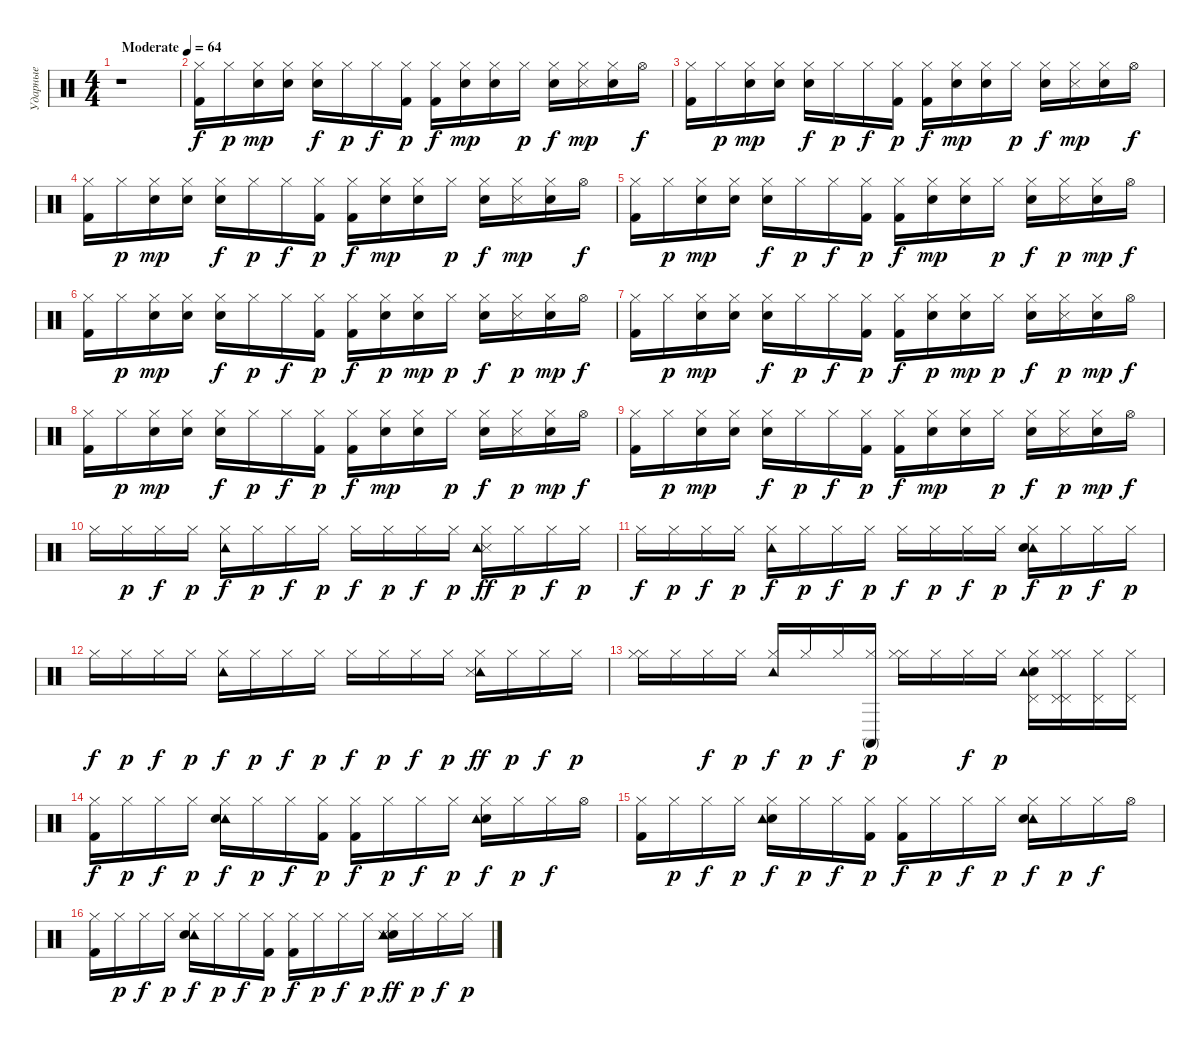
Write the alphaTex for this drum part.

\track ("Ударные" "Ударные") {instrument percussion}
\staff {score}
\articulation defaults
\ts (4 4)
\tempo (64 "Moderate")
\clef neutral
\ks c
r.1{dy f} |
("Hi-Hat (closed)" "Kick (hit) 2").16 "Hi-Hat (closed)".16{dy p} ("Hi-Hat (closed)" "Metronome (bell)").16{dy mp} ("Hi-Hat (closed)" "Metronome (bell)").16 ("Hi-Hat (closed)" "Electric Snare (hit)").16{dy f} "Hi-Hat (closed)".16{dy p} "Hi-Hat (closed)".16{dy f} ("Hi-Hat (closed)" "Kick (hit) 2").16{dy p} ("Hi-Hat (closed)" "Kick (hit) 2").16{dy f} ("Hi-Hat (closed)" "Metronome (bell)").16{dy mp} ("Metronome (bell)" "Hi-Hat (closed)").16 "Hi-Hat (closed)".16{dy p} ("Electric Snare (hit)" "Hi-Hat (closed)").16{dy f} ("Hi-Hat (closed)" "Snare (side stick) 3").16{dy mp} ("Hi-Hat (closed)" "Hand Clap (hit)").16 "Hi-Hat (open)".16{dy f} |
("Hi-Hat (closed)" "Kick (hit) 2").16 "Hi-Hat (closed)".16{dy p} ("Hi-Hat (closed)" "Metronome (bell)").16{dy mp} ("Hi-Hat (closed)" "Metronome (bell)").16 ("Hi-Hat (closed)" "Electric Snare (hit)").16{dy f} "Hi-Hat (closed)".16{dy p} "Hi-Hat (closed)".16{dy f} ("Hi-Hat (closed)" "Kick (hit) 2").16{dy p} ("Hi-Hat (closed)" "Kick (hit) 2").16{dy f} ("Hi-Hat (closed)" "Metronome (bell)").16{dy mp} ("Metronome (bell)" "Hi-Hat (closed)").16 "Hi-Hat (closed)".16{dy p} ("Electric Snare (hit)" "Hi-Hat (closed)").16{dy f} ("Hi-Hat (closed)" "Snare (side stick) 3").16{dy mp} ("Hi-Hat (closed)" "Hand Clap (hit)").16 "Hi-Hat (open)".16{dy f} |
("Kick (hit) 2" "Hi-Hat (closed)").16 "Hi-Hat (closed)".16{dy p} ("Hi-Hat (closed)" "Metronome (bell)").16{dy mp} ("Hi-Hat (closed)" "Metronome (bell)").16 ("Hi-Hat (closed)" "Electric Snare (hit)").16{dy f} "Hi-Hat (closed)".16{dy p} "Hi-Hat (closed)".16{dy f} ("Hi-Hat (closed)" "Kick (hit) 2").16{dy p} ("Hi-Hat (closed)" "Kick (hit) 2").16{dy f} ("Hi-Hat (closed)" "Metronome (bell)").16{dy mp} ("Metronome (bell)" "Hi-Hat (closed)").16 "Hi-Hat (closed)".16{dy p} ("Electric Snare (hit)" "Hi-Hat (closed)").16{dy f} ("Hi-Hat (closed)" "Snare (side stick) 3").16{dy mp} ("Hi-Hat (closed)" "Hand Clap (hit)").16 "Hi-Hat (open)".16{dy f} |
("Kick (hit) 2" "Hi-Hat (closed)").16 "Hi-Hat (closed)".16{dy p} ("Hi-Hat (closed)" "Metronome (bell)").16{dy mp} ("Hi-Hat (closed)" "Metronome (bell)").16 ("Hi-Hat (closed)" "Electric Snare (hit)").16{dy f} "Hi-Hat (closed)".16{dy p} "Hi-Hat (closed)".16{dy f} ("Kick (hit) 2" "Hi-Hat (closed)").16{dy p} ("Hi-Hat (closed)" "Kick (hit) 2").16{dy f} ("Hi-Hat (closed)" "Metronome (bell)").16{dy mp} ("Metronome (bell)" "Hi-Hat (closed)").16 "Hi-Hat (closed)".16{dy p} ("Electric Snare (hit)" "Hi-Hat (closed)").16{dy f} ("Snare (side stick) 3" "Hi-Hat (closed)").16{dy p} ("Hi-Hat (closed)" "Hand Clap (hit)").16{dy mp} "Hi-Hat (open)".16{dy f} |
("Hi-Hat (closed)" "Kick (hit) 2").16 "Hi-Hat (closed)".16{dy p} ("Hi-Hat (closed)" "Metronome (bell)").16{dy mp} ("Hi-Hat (closed)" "Metronome (bell)").16 ("Hi-Hat (closed)" "Electric Snare (hit)").16{dy f} "Hi-Hat (closed)".16{dy p} "Hi-Hat (closed)".16{dy f} ("Hi-Hat (closed)" "Kick (hit) 2").16{dy p} ("Hi-Hat (closed)" "Kick (hit) 2").16{dy f} ("Metronome (bell)" "Hi-Hat (closed)").16{dy p} ("Metronome (bell)" "Hi-Hat (closed)").16{dy mp} "Hi-Hat (closed)".16{dy p} ("Electric Snare (hit)" "Hi-Hat (closed)").16{dy f} ("Snare (side stick) 3" "Hi-Hat (closed)").16{dy p} ("Hi-Hat (closed)" "Hand Clap (hit)").16{dy mp} "Hi-Hat (open)".16{dy f} |
("Hi-Hat (closed)" "Kick (hit) 2").16 "Hi-Hat (closed)".16{dy p} ("Hi-Hat (closed)" "Metronome (bell)").16{dy mp} ("Hi-Hat (closed)" "Metronome (bell)").16 ("Electric Snare (hit)" "Hi-Hat (closed)").16{dy f} "Hi-Hat (closed)".16{dy p} "Hi-Hat (closed)".16{dy f} ("Kick (hit) 2" "Hi-Hat (closed)").16{dy p} ("Kick (hit) 2" "Hi-Hat (closed)").16{dy f} ("Metronome (bell)" "Hi-Hat (closed)").16{dy p} ("Hi-Hat (closed)" "Metronome (bell)").16{dy mp} "Hi-Hat (closed)".16{dy p} ("Electric Snare (hit)" "Hi-Hat (closed)").16{dy f} ("Snare (side stick) 3" "Hi-Hat (closed)").16{dy p} ("Hand Clap (hit)" "Hi-Hat (closed)").16{dy mp} "Hi-Hat (open)".16{dy f} |
("Kick (hit) 2" "Hi-Hat (closed)").16 "Hi-Hat (closed)".16{dy p} ("Metronome (bell)" "Hi-Hat (closed)").16{dy mp} ("Hi-Hat (closed)" "Metronome (bell)").16 ("Hi-Hat (closed)" "Electric Snare (hit)").16{dy f} "Hi-Hat (closed)".16{dy p} "Hi-Hat (closed)".16{dy f} ("Hi-Hat (closed)" "Kick (hit) 2").16{dy p} ("Hi-Hat (closed)" "Kick (hit) 2").16{dy f} ("Hi-Hat (closed)" "Metronome (bell)").16{dy mp} ("Hi-Hat (closed)" "Metronome (bell)").16 "Hi-Hat (closed)".16{dy p} ("Electric Snare (hit)" "Hi-Hat (closed)").16{dy f} ("Snare (side stick) 3" "Hi-Hat (closed)").16{dy p} ("Hi-Hat (closed)" "Hand Clap (hit)").16{dy mp} "Hi-Hat (open)".16{dy f} |
("Kick (hit) 2" "Hi-Hat (closed)").16 "Hi-Hat (closed)".16{dy p} ("Hi-Hat (closed)" "Metronome (bell)").16{dy mp} ("Hi-Hat (closed)" "Metronome (bell)").16 ("Hi-Hat (closed)" "Electric Snare (hit)").16{dy f} "Hi-Hat (closed)".16{dy p} "Hi-Hat (closed)".16{dy f} ("Kick (hit) 2" "Hi-Hat (closed)").16{dy p} ("Hi-Hat (closed)" "Kick (hit) 2").16{dy f} ("Hi-Hat (closed)" "Metronome (bell)").16{dy mp} ("Hi-Hat (closed)" "Metronome (bell)").16 "Hi-Hat (closed)".16{dy p} ("Electric Snare (hit)" "Hi-Hat (closed)").16{dy f} ("Snare (side stick) 3" "Hi-Hat (closed)").16{dy p} ("Hi-Hat (closed)" "Hand Clap (hit)").16{dy mp} "Hi-Hat (open)".16{dy f} |
"Hi-Hat (closed)".16 "Hi-Hat (closed)".16{dy p} "Hi-Hat (closed)".16{dy f} "Hi-Hat (closed)".16{dy p} ("Hi-Hat (closed)" "Tambourine (hit)").16{dy f} "Hi-Hat (closed)".16{dy p} "Hi-Hat (closed)".16{dy f} "Hi-Hat (closed)".16{dy p} "Hi-Hat (closed)".16{dy f} "Hi-Hat (closed)".16{dy p} "Hi-Hat (closed)".16{dy f} "Hi-Hat (closed)".16{dy p} ("Hi-Hat (closed)" "Snare (side stick) 3" "Tambourine (hit)").16{dy ff} "Hi-Hat (closed)".16{dy p} "Hi-Hat (closed)".16{dy f} "Hi-Hat (closed)".16{dy p} |
"Hi-Hat (closed)".16{dy f} "Hi-Hat (closed)".16{dy p} "Hi-Hat (closed)".16{dy f} "Hi-Hat (closed)".16{dy p} ("Tambourine (hit)" "Hi-Hat (closed)").16{dy f} "Hi-Hat (closed)".16{dy p} "Hi-Hat (closed)".16{dy f} "Hi-Hat (closed)".16{dy p} "Hi-Hat (closed)".16{dy f} "Hi-Hat (closed)".16{dy p} "Hi-Hat (closed)".16{dy f} "Hi-Hat (closed)".16{dy p} ("Hi-Hat (closed)" "Tambourine (hit)" "Hand Clap (hit)").16{dy f} "Hi-Hat (closed)".16{dy p} "Hi-Hat (closed)".16{dy f} "Hi-Hat (closed)".16{dy p} |
"Hi-Hat (closed)".16{dy f} "Hi-Hat (closed)".16{dy p} "Hi-Hat (closed)".16{dy f} "Hi-Hat (closed)".16{dy p} ("Hi-Hat (closed)" "Tambourine (hit)").16{dy f} "Hi-Hat (closed)".16{dy p} "Hi-Hat (closed)".16{dy f} "Hi-Hat (closed)".16{dy p} "Hi-Hat (closed)".16{dy f} "Hi-Hat (closed)".16{dy p} "Hi-Hat (closed)".16{dy f} "Hi-Hat (closed)".16{dy p} ("Hi-Hat (closed)" "Tambourine (hit)" "Snare (side stick) 3").16{dy ff} "Hi-Hat (closed)".16{dy p} "Hi-Hat (closed)".16{dy f} "Hi-Hat (closed)".16{dy p} |
("Hi-Hat (closed)" "Hi-Hat (closed)").16 "Hi-Hat (closed)".16 "Hi-Hat (closed)".16{dy f} "Hi-Hat (closed)".16{dy p} ("Tambourine (hit)" "Hi-Hat (closed)").16{dy f} "Hi-Hat (closed)".16{dy p} "Hi-Hat (closed)".16{dy f} ("Hi-Hat (closed)" "Conga high (mute)").16{dy p} ("Hi-Hat (closed)" "Hi-Hat (closed)").16 "Hi-Hat (closed)".16 "Hi-Hat (closed)".16{dy f} "Hi-Hat (closed)".16{dy p} ("Hand Clap (hit)" "Hi-Hat (closed)" "Pedal Hi-Hat (hit)" "Tambourine (hit)").16 ("Hi-Hat (closed)" "Pedal Hi-Hat (hit)" "Pedal Hi-Hat (hit)" "Hi-Hat (closed)").16 ("Pedal Hi-Hat (hit)" "Hi-Hat (closed)").16 ("Pedal Hi-Hat (hit)" "Hi-Hat (closed)").16 |
("Kick (hit) 2" "Hi-Hat (closed)").16{dy f} "Hi-Hat (closed)".16{dy p} "Hi-Hat (closed)".16{dy f} "Hi-Hat (closed)".16{dy p} ("Tambourine (hit)" "Electric Snare (hit)" "Hi-Hat (closed)").16{dy f} "Hi-Hat (closed)".16{dy p} "Hi-Hat (closed)".16{dy f} ("Kick (hit) 2" "Hi-Hat (closed)").16{dy p} ("Kick (hit) 2" "Hi-Hat (closed)").16{dy f} "Hi-Hat (closed)".16{dy p} "Hi-Hat (closed)".16{dy f} "Hi-Hat (closed)".16{dy p} ("Electric Snare (hit)" "Tambourine (hit)" "Hi-Hat (closed)").16{dy f} "Hi-Hat (closed)".16{dy p} "Hi-Hat (closed)".16{dy f} "Hi-Hat (open)".16 |
("Hi-Hat (closed)" "Kick (hit) 2").16 "Hi-Hat (closed)".16{dy p} "Hi-Hat (closed)".16{dy f} "Hi-Hat (closed)".16{dy p} ("Electric Snare (hit)" "Hi-Hat (closed)" "Tambourine (hit)").16{dy f} "Hi-Hat (closed)".16{dy p} "Hi-Hat (closed)".16{dy f} ("Kick (hit) 2" "Hi-Hat (closed)").16{dy p} ("Kick (hit) 2" "Hi-Hat (closed)").16{dy f} "Hi-Hat (closed)".16{dy p} "Hi-Hat (closed)".16{dy f} "Hi-Hat (closed)".16{dy p} ("Hi-Hat (closed)" "Tambourine (hit)" "Electric Snare (hit)").16{dy f} "Hi-Hat (closed)".16{dy p} "Hi-Hat (closed)".16{dy f} "Hi-Hat (open)".16 |
("Hi-Hat (closed)" "Kick (hit) 2").16 "Hi-Hat (closed)".16{dy p} "Hi-Hat (closed)".16{dy f} "Hi-Hat (closed)".16{dy p} ("Hi-Hat (closed)" "Tambourine (hit)" "Electric Snare (hit)").16{dy f} "Hi-Hat (closed)".16{dy p} "Hi-Hat (closed)".16{dy f} ("Kick (hit) 2" "Hi-Hat (closed)").16{dy p} ("Kick (hit) 2" "Hi-Hat (closed)").16{dy f} "Hi-Hat (closed)".16{dy p} "Hi-Hat (closed)".16{dy f} "Hi-Hat (closed)".16{dy p} ("Electric Snare (hit)" "Tambourine (hit)" "Snare (side stick) 3" "Hi-Hat (closed)").16{dy ff} "Hi-Hat (closed)".16{dy p} "Hi-Hat (closed)".16{dy f} "Hi-Hat (closed)".16{dy p}
